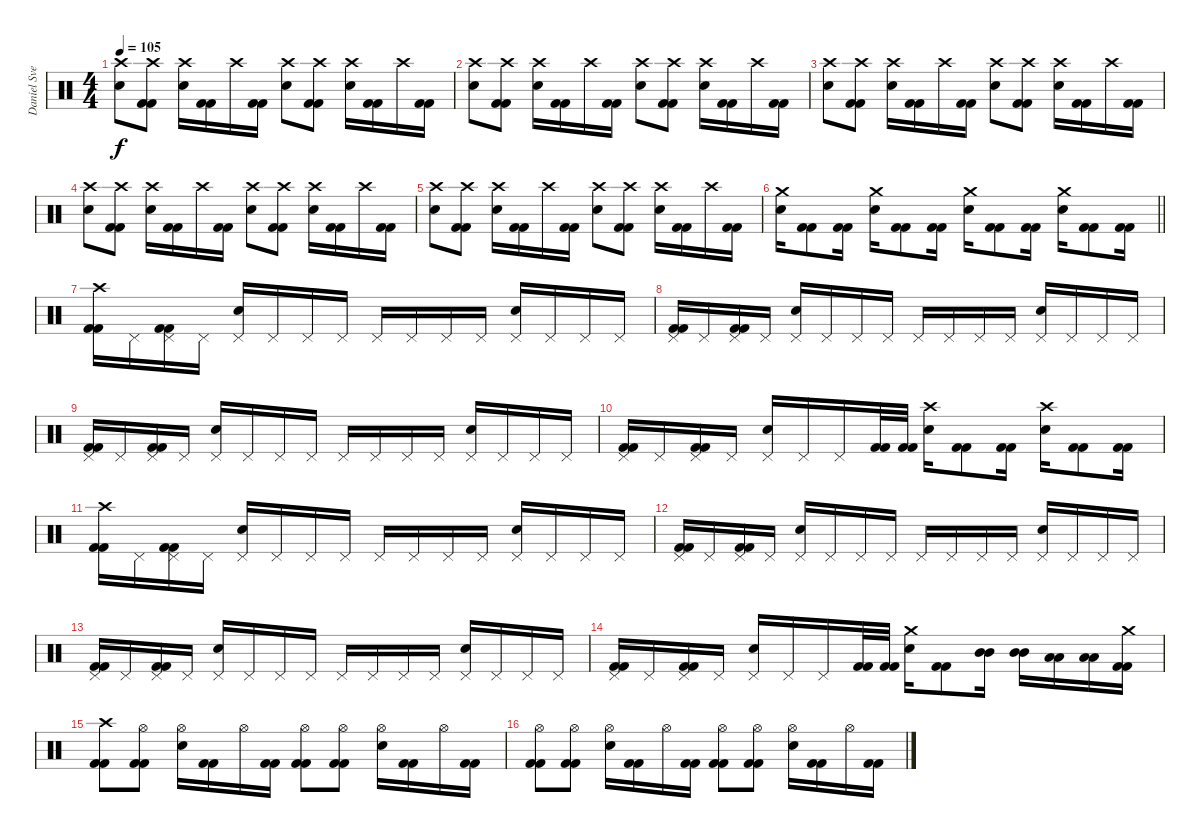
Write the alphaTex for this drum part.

\track ("Daniel Svensson" "Daniel Sve") {instrument percussion}
\staff {score}
\articulation defaults
\ts (4 4)
\tempo 105
\clef neutral
\ks c
("Crash high (hit)" "Electric Snare (hit)").8{dy f} ("Crash high (hit)" "Kick (hit) 2" "Kick (hit) 2").8 ("Crash high (hit)" "Electric Snare (hit)").16 ("Kick (hit) 2" "Kick (hit) 2").16 "Crash high (hit)".16 ("Kick (hit) 2" "Kick (hit) 2").16 ("Crash high (hit)" "Electric Snare (hit)").8 ("Crash high (hit)" "Kick (hit) 2" "Kick (hit) 2").8 ("Crash high (hit)" "Electric Snare (hit)").16 ("Kick (hit) 2" "Kick (hit) 2").16 "Crash high (hit)".16 ("Kick (hit) 2" "Kick (hit) 2").16 |
("Crash high (hit)" "Electric Snare (hit)").8 ("Crash high (hit)" "Kick (hit) 2" "Kick (hit) 2").8 ("Crash high (hit)" "Electric Snare (hit)").16 ("Kick (hit) 2" "Kick (hit) 2").16 "Crash high (hit)".16 ("Kick (hit) 2" "Kick (hit) 2").16 ("Crash high (hit)" "Electric Snare (hit)").8 ("Crash high (hit)" "Kick (hit) 2" "Kick (hit) 2").8 ("Crash high (hit)" "Electric Snare (hit)").16 ("Kick (hit) 2" "Kick (hit) 2").16 "Crash high (hit)".16 ("Kick (hit) 2" "Kick (hit) 2").16 |
("Crash high (hit)" "Electric Snare (hit)").8 ("Crash high (hit)" "Kick (hit) 2" "Kick (hit) 2").8 ("Crash high (hit)" "Electric Snare (hit)").16 ("Kick (hit) 2" "Kick (hit) 2").16 "Crash high (hit)".16 ("Kick (hit) 2" "Kick (hit) 2").16 ("Crash high (hit)" "Electric Snare (hit)").8 ("Crash high (hit)" "Kick (hit) 2" "Kick (hit) 2").8 ("Crash high (hit)" "Electric Snare (hit)").16 ("Kick (hit) 2" "Kick (hit) 2").16 "Crash high (hit)".16 ("Kick (hit) 2" "Kick (hit) 2").16 |
("Crash high (hit)" "Electric Snare (hit)").8 ("Crash high (hit)" "Kick (hit) 2" "Kick (hit) 2").8 ("Crash high (hit)" "Electric Snare (hit)").16 ("Kick (hit) 2" "Kick (hit) 2").16 "Crash high (hit)".16 ("Kick (hit) 2" "Kick (hit) 2").16 ("Crash high (hit)" "Electric Snare (hit)").8 ("Crash high (hit)" "Kick (hit) 2" "Kick (hit) 2").8 ("Crash high (hit)" "Electric Snare (hit)").16 ("Kick (hit) 2" "Kick (hit) 2").16 "Crash high (hit)".16 ("Kick (hit) 2" "Kick (hit) 2").16 |
("Crash high (hit)" "Electric Snare (hit)").8 ("Crash high (hit)" "Kick (hit) 2" "Kick (hit) 2").8 ("Crash high (hit)" "Electric Snare (hit)").16 ("Kick (hit) 2" "Kick (hit) 2").16 "Crash high (hit)".16 ("Kick (hit) 2" "Kick (hit) 2").16 ("Crash high (hit)" "Electric Snare (hit)").8 ("Crash high (hit)" "Kick (hit) 2" "Kick (hit) 2").8 ("Crash high (hit)" "Electric Snare (hit)").16 ("Kick (hit) 2" "Kick (hit) 2").16 "Crash high (hit)".16 ("Kick (hit) 2" "Kick (hit) 2").16 |
\barLineRight lightlight
("Crash medium (hit)" "Electric Snare (hit)").16 ("Kick (hit) 2" "Kick (hit) 2").8 ("Kick (hit) 2" "Kick (hit) 2").16 ("Crash medium (hit)" "Electric Snare (hit)").16 ("Kick (hit) 2" "Kick (hit) 2").8 ("Kick (hit) 2" "Kick (hit) 2").16 ("Crash medium (hit)" "Electric Snare (hit)").16 ("Kick (hit) 2" "Kick (hit) 2").8 ("Kick (hit) 2" "Kick (hit) 2").16 ("Crash medium (hit)" "Electric Snare (hit)").16 ("Kick (hit) 2" "Kick (hit) 2").8 ("Kick (hit) 2" "Kick (hit) 2").16 |
("Crash high (hit)" "Kick (hit) 2" "Kick (hit) 2").16 "Pedal Hi-Hat (hit)".16 ("Pedal Hi-Hat (hit)" "Kick (hit) 2" "Kick (hit) 2").16 "Pedal Hi-Hat (hit)".16 ("Pedal Hi-Hat (hit)" "Electric Snare (hit)").16 "Pedal Hi-Hat (hit)".16 "Pedal Hi-Hat (hit)".16 "Pedal Hi-Hat (hit)".16 "Pedal Hi-Hat (hit)".16 "Pedal Hi-Hat (hit)".16 "Pedal Hi-Hat (hit)".16 "Pedal Hi-Hat (hit)".16 ("Pedal Hi-Hat (hit)" "Electric Snare (hit)").16 "Pedal Hi-Hat (hit)".16 "Pedal Hi-Hat (hit)".16 "Pedal Hi-Hat (hit)".16 |
("Pedal Hi-Hat (hit)" "Kick (hit) 2" "Kick (hit) 2").16 "Pedal Hi-Hat (hit)".16 ("Pedal Hi-Hat (hit)" "Kick (hit) 2" "Kick (hit) 2").16 "Pedal Hi-Hat (hit)".16 ("Pedal Hi-Hat (hit)" "Electric Snare (hit)").16 "Pedal Hi-Hat (hit)".16 "Pedal Hi-Hat (hit)".16 "Pedal Hi-Hat (hit)".16 "Pedal Hi-Hat (hit)".16 "Pedal Hi-Hat (hit)".16 "Pedal Hi-Hat (hit)".16 "Pedal Hi-Hat (hit)".16 ("Pedal Hi-Hat (hit)" "Electric Snare (hit)").16 "Pedal Hi-Hat (hit)".16 "Pedal Hi-Hat (hit)".16 "Pedal Hi-Hat (hit)".16 |
("Pedal Hi-Hat (hit)" "Kick (hit) 2" "Kick (hit) 2").16 "Pedal Hi-Hat (hit)".16 ("Pedal Hi-Hat (hit)" "Kick (hit) 2" "Kick (hit) 2").16 "Pedal Hi-Hat (hit)".16 ("Pedal Hi-Hat (hit)" "Electric Snare (hit)").16 "Pedal Hi-Hat (hit)".16 "Pedal Hi-Hat (hit)".16 "Pedal Hi-Hat (hit)".16 "Pedal Hi-Hat (hit)".16 "Pedal Hi-Hat (hit)".16 "Pedal Hi-Hat (hit)".16 "Pedal Hi-Hat (hit)".16 ("Pedal Hi-Hat (hit)" "Electric Snare (hit)").16 "Pedal Hi-Hat (hit)".16 "Pedal Hi-Hat (hit)".16 "Pedal Hi-Hat (hit)".16 |
("Pedal Hi-Hat (hit)" "Kick (hit) 2" "Kick (hit) 2").16 "Pedal Hi-Hat (hit)".16 ("Pedal Hi-Hat (hit)" "Kick (hit) 2" "Kick (hit) 2").16 "Pedal Hi-Hat (hit)".16 ("Pedal Hi-Hat (hit)" "Electric Snare (hit)").16 "Pedal Hi-Hat (hit)".16 "Pedal Hi-Hat (hit)".16 ("Kick (hit) 2" "Kick (hit) 2").32 ("Kick (hit) 2" "Kick (hit) 2").32 ("Crash high (hit)" "Electric Snare (hit)").16 ("Kick (hit) 2" "Kick (hit) 2").8 ("Kick (hit) 2" "Kick (hit) 2").16 ("Crash high (hit)" "Electric Snare (hit)").16 ("Kick (hit) 2" "Kick (hit) 2").8 ("Kick (hit) 2" "Kick (hit) 2").16 |
("Crash high (hit)" "Kick (hit) 2" "Kick (hit) 2").16 "Pedal Hi-Hat (hit)".16 ("Pedal Hi-Hat (hit)" "Kick (hit) 2" "Kick (hit) 2").16 "Pedal Hi-Hat (hit)".16 ("Pedal Hi-Hat (hit)" "Electric Snare (hit)").16 "Pedal Hi-Hat (hit)".16 "Pedal Hi-Hat (hit)".16 "Pedal Hi-Hat (hit)".16 "Pedal Hi-Hat (hit)".16 "Pedal Hi-Hat (hit)".16 "Pedal Hi-Hat (hit)".16 "Pedal Hi-Hat (hit)".16 ("Pedal Hi-Hat (hit)" "Electric Snare (hit)").16 "Pedal Hi-Hat (hit)".16 "Pedal Hi-Hat (hit)".16 "Pedal Hi-Hat (hit)".16 |
("Pedal Hi-Hat (hit)" "Kick (hit) 2" "Kick (hit) 2").16 "Pedal Hi-Hat (hit)".16 ("Pedal Hi-Hat (hit)" "Kick (hit) 2" "Kick (hit) 2").16 "Pedal Hi-Hat (hit)".16 ("Pedal Hi-Hat (hit)" "Electric Snare (hit)").16 "Pedal Hi-Hat (hit)".16 "Pedal Hi-Hat (hit)".16 "Pedal Hi-Hat (hit)".16 "Pedal Hi-Hat (hit)".16 "Pedal Hi-Hat (hit)".16 "Pedal Hi-Hat (hit)".16 "Pedal Hi-Hat (hit)".16 ("Pedal Hi-Hat (hit)" "Electric Snare (hit)").16 "Pedal Hi-Hat (hit)".16 "Pedal Hi-Hat (hit)".16 "Pedal Hi-Hat (hit)".16 |
("Pedal Hi-Hat (hit)" "Kick (hit) 2" "Kick (hit) 2").16 "Pedal Hi-Hat (hit)".16 ("Pedal Hi-Hat (hit)" "Kick (hit) 2" "Kick (hit) 2").16 "Pedal Hi-Hat (hit)".16 ("Pedal Hi-Hat (hit)" "Electric Snare (hit)").16 "Pedal Hi-Hat (hit)".16 "Pedal Hi-Hat (hit)".16 "Pedal Hi-Hat (hit)".16 "Pedal Hi-Hat (hit)".16 "Pedal Hi-Hat (hit)".16 "Pedal Hi-Hat (hit)".16 "Pedal Hi-Hat (hit)".16 ("Pedal Hi-Hat (hit)" "Electric Snare (hit)").16 "Pedal Hi-Hat (hit)".16 "Pedal Hi-Hat (hit)".16 "Pedal Hi-Hat (hit)".16 |
("Pedal Hi-Hat (hit)" "Kick (hit) 2" "Kick (hit) 2").16 "Pedal Hi-Hat (hit)".16 ("Pedal Hi-Hat (hit)" "Kick (hit) 2" "Kick (hit) 2").16 "Pedal Hi-Hat (hit)".16 ("Pedal Hi-Hat (hit)" "Electric Snare (hit)").16 "Pedal Hi-Hat (hit)".16 "Pedal Hi-Hat (hit)".16 ("Kick (hit) 2" "Kick (hit) 2").32 ("Kick (hit) 2" "Kick (hit) 2").32 ("Crash medium (hit)" "Electric Snare (hit)").16 ("Kick (hit) 2" "Kick (hit) 2").8 ("Mid Tom (hit)" "Mid Tom (hit)").16 ("Mid Tom (hit)" "Mid Tom (hit)").16 ("Low Tom (hit)" "Low Tom (hit)").16 ("Low Tom (hit)" "Low Tom (hit)").16 ("Crash medium (hit)" "Kick (hit) 2" "Kick (hit) 2").16 |
("Crash high (hit)" "Kick (hit) 2" "Kick (hit) 2").8 ("Hi-Hat (open)" "Kick (hit) 2" "Kick (hit) 2").8 ("Hi-Hat (open)" "Electric Snare (hit)").16 ("Kick (hit) 2" "Kick (hit) 2").16 "Hi-Hat (open)".16 ("Kick (hit) 2" "Kick (hit) 2").16 ("Hi-Hat (open)" "Kick (hit) 2" "Kick (hit) 2").8 ("Hi-Hat (open)" "Kick (hit) 2" "Kick (hit) 2").8 ("Hi-Hat (open)" "Electric Snare (hit)").16 ("Kick (hit) 2" "Kick (hit) 2").16 "Hi-Hat (open)".16 ("Kick (hit) 2" "Kick (hit) 2").16 |
("Hi-Hat (open)" "Kick (hit) 2" "Kick (hit) 2").8 ("Hi-Hat (open)" "Kick (hit) 2" "Kick (hit) 2").8 ("Hi-Hat (open)" "Electric Snare (hit)").16 ("Kick (hit) 2" "Kick (hit) 2").16 "Hi-Hat (open)".16 ("Kick (hit) 2" "Kick (hit) 2").16 ("Hi-Hat (open)" "Kick (hit) 2" "Kick (hit) 2").8 ("Hi-Hat (open)" "Kick (hit) 2" "Kick (hit) 2").8 ("Hi-Hat (open)" "Electric Snare (hit)").16 ("Kick (hit) 2" "Kick (hit) 2").16 "Hi-Hat (open)".16 ("Kick (hit) 2" "Kick (hit) 2").16
